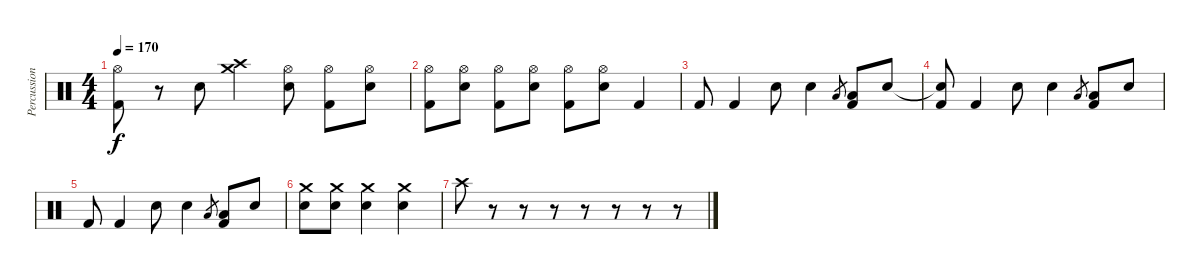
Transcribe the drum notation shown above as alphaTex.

\track ("Percussion" "Percussion") {instrument percussion}
\staff {score}
\articulation defaults
\ts (4 4)
\tempo 170
\clef neutral
\ks c
("Hi-Hat (open)"{t} "Kick (hit) 2"{t}).8{dy f} r.8 "Electric Snare (hit)".8 ("Crash high (hit)" "Crash medium (hit)").4 ("Hi-Hat (open)" "Electric Snare (hit)").8 ("Hi-Hat (open)" "Kick (hit) 2").8 ("Hi-Hat (open)" "Electric Snare (hit)").8 |
("Hi-Hat (open)" "Kick (hit) 2").8 ("Hi-Hat (open)" "Electric Snare (hit)").8 ("Hi-Hat (open)" "Kick (hit) 2").8 ("Hi-Hat (open)" "Electric Snare (hit)").8 ("Hi-Hat (open)" "Kick (hit) 2").8 ("Hi-Hat (open)" "Electric Snare (hit)").8 "Kick (hit) 2".4 |
"Kick (hit) 2".8 "Kick (hit) 2".4 "Electric Snare (hit)".8 "Electric Snare (hit)".4 "Low Floor Tom (hit)".8{gr} ("Low Floor Tom (hit)" "Kick (hit) 2").8 "Electric Snare (hit)".8 |
("Electric Snare (hit)"{t} "Kick (hit) 2").8 "Kick (hit) 2".4 "Electric Snare (hit)".8 "Electric Snare (hit)".4 "Low Floor Tom (hit)".8{gr} ("Low Floor Tom (hit)" "Kick (hit) 2").8 "Electric Snare (hit)".8 |
"Kick (hit) 2".8 "Kick (hit) 2".4 "Electric Snare (hit)".8 "Electric Snare (hit)".4 "Low Floor Tom (hit)".8{gr} ("Low Floor Tom (hit)" "Kick (hit) 2").8 "Electric Snare (hit)".8 |
("Crash medium (hit)" "Electric Snare (hit)").8 ("Crash medium (hit)" "Electric Snare (hit)").8 ("Crash medium (hit)" "Electric Snare (hit)").4 ("Crash medium (hit)" "Electric Snare (hit)").4 |
"Crash high (hit)".8 r.8 r.8 r.8 r.8 r.8 r.8 r.8
